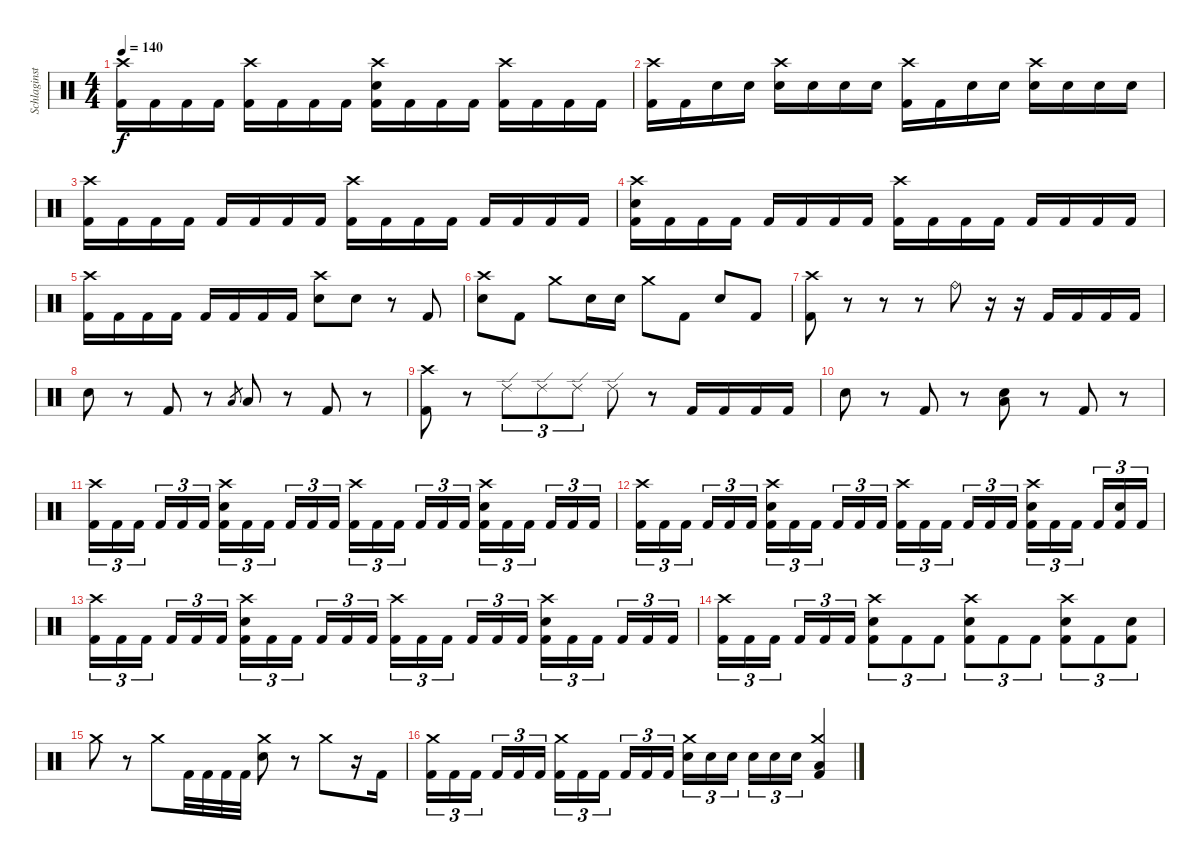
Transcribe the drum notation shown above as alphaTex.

\track ("Schlaginstrumente - Auswahl" "Schlaginst") {instrument percussion}
\staff {score}
\articulation defaults
\ts (4 4)
\tempo 140
\clef neutral
\ks c
("Crash high (hit)" "Kick (hit) 2").16{dy f} "Kick (hit) 2".16 "Kick (hit) 2".16 "Kick (hit) 2".16 ("Crash high (hit)" "Kick (hit) 2").16 "Kick (hit) 2".16 "Kick (hit) 2".16 "Kick (hit) 2".16 ("Electric Snare (hit)" "Crash high (hit)" "Kick (hit) 2").16 "Kick (hit) 2".16 "Kick (hit) 2".16 "Kick (hit) 2".16 ("Crash high (hit)" "Kick (hit) 2").16 "Kick (hit) 2".16 "Kick (hit) 2".16 "Kick (hit) 2".16 |
("Crash high (hit)" "Kick (hit) 2").16 "Kick (hit) 2".16 "Electric Snare (hit)".16 "Electric Snare (hit)".16 ("Crash high (hit)" "Electric Snare (hit)").16 "Electric Snare (hit)".16 "Electric Snare (hit)".16 "Electric Snare (hit)".16 ("Crash high (hit)" "Kick (hit) 2").16 "Kick (hit) 2".16 "Electric Snare (hit)".16 "Electric Snare (hit)".16 ("Crash high (hit)" "Electric Snare (hit)").16 "Electric Snare (hit)".16 "Electric Snare (hit)".16 "Electric Snare (hit)".16 |
("Crash high (hit)" "Kick (hit) 2").16 "Kick (hit) 2".16 "Kick (hit) 2".16 "Kick (hit) 2".16 "Kick (hit) 2".16 "Kick (hit) 2".16 "Kick (hit) 2".16 "Kick (hit) 2".16 ("Crash high (hit)" "Kick (hit) 2").16 "Kick (hit) 2".16 "Kick (hit) 2".16 "Kick (hit) 2".16 "Kick (hit) 2".16 "Kick (hit) 2".16 "Kick (hit) 2".16 "Kick (hit) 2".16 |
("Electric Snare (hit)" "Crash high (hit)" "Kick (hit) 2").16 "Kick (hit) 2".16 "Kick (hit) 2".16 "Kick (hit) 2".16 "Kick (hit) 2".16 "Kick (hit) 2".16 "Kick (hit) 2".16 "Kick (hit) 2".16 ("Crash high (hit)" "Kick (hit) 2").16 "Kick (hit) 2".16 "Kick (hit) 2".16 "Kick (hit) 2".16 "Kick (hit) 2".16 "Kick (hit) 2".16 "Kick (hit) 2".16 "Kick (hit) 2".16 |
("Crash high (hit)" "Kick (hit) 2").16 "Kick (hit) 2".16 "Kick (hit) 2".16 "Kick (hit) 2".16 "Kick (hit) 2".16 "Kick (hit) 2".16 "Kick (hit) 2".16 "Kick (hit) 2".16 ("Crash high (hit)" "Electric Snare (hit)").8 "Electric Snare (hit)".8 r.8 "Kick (hit) 2".8 |
("Electric Snare (hit)" "Crash high (hit)").8 "Kick (hit) 2".8 "Crash medium (hit)".8 "Electric Snare (hit)".16 "Electric Snare (hit)".16 "Crash medium (hit)".8 "Kick (hit) 2".8 "Electric Snare (hit)".8 "Kick (hit) 2".8 |
("Crash high (hit)" "Kick (hit) 2").8 r.8 r.8 r.8 "Ride (bell)".8 r.16 r.16 "Kick (hit) 2".16 "Kick (hit) 2".16 "Kick (hit) 2".16 "Kick (hit) 2".16 |
"Electric Snare (hit)".8 r.8 "Kick (hit) 2".8 r.8 "Low Tom (hit)".8{gr} "Low Tom (hit)".8 r.8 "Kick (hit) 2".8 r.8 |
("Crash high (hit)" "Kick (hit) 2").8 r.8 "Ride (edge) 2".8{tu (3 2)} "Ride (edge) 2".8{tu (3 2)} "Ride (edge) 2".8{tu (3 2)} "Ride (edge) 2".8 r.8 "Kick (hit) 2".16 "Kick (hit) 2".16 "Kick (hit) 2".16 "Kick (hit) 2".16 |
"Electric Snare (hit)".8 r.8 "Kick (hit) 2".8 r.8 ("Low Floor Tom (hit)" "Electric Snare (hit)").8 r.8 "Kick (hit) 2".8 r.8 |
("Crash high (hit)" "Kick (hit) 2").16{tu (3 2)} "Kick (hit) 2".16{tu (3 2)} "Kick (hit) 2".16{tu (3 2) beam splitsecondary} "Kick (hit) 2".16{tu (3 2)} "Kick (hit) 2".16{tu (3 2)} "Kick (hit) 2".16{tu (3 2)} ("Electric Snare (hit)" "Crash high (hit)" "Kick (hit) 2").16{tu (3 2)} "Kick (hit) 2".16{tu (3 2)} "Kick (hit) 2".16{tu (3 2) beam splitsecondary} "Kick (hit) 2".16{tu (3 2)} "Kick (hit) 2".16{tu (3 2)} "Kick (hit) 2".16{tu (3 2)} ("Crash high (hit)" "Kick (hit) 2").16{tu (3 2)} "Kick (hit) 2".16{tu (3 2)} "Kick (hit) 2".16{tu (3 2) beam splitsecondary} "Kick (hit) 2".16{tu (3 2)} "Kick (hit) 2".16{tu (3 2)} "Kick (hit) 2".16{tu (3 2)} ("Electric Snare (hit)" "Crash high (hit)" "Kick (hit) 2").16{tu (3 2)} "Kick (hit) 2".16{tu (3 2)} "Kick (hit) 2".16{tu (3 2) beam splitsecondary} "Kick (hit) 2".16{tu (3 2)} "Kick (hit) 2".16{tu (3 2)} "Kick (hit) 2".16{tu (3 2)} |
("Crash high (hit)" "Kick (hit) 2").16{tu (3 2)} "Kick (hit) 2".16{tu (3 2)} "Kick (hit) 2".16{tu (3 2) beam splitsecondary} "Kick (hit) 2".16{tu (3 2)} "Kick (hit) 2".16{tu (3 2)} "Kick (hit) 2".16{tu (3 2)} ("Electric Snare (hit)" "Crash high (hit)" "Kick (hit) 2").16{tu (3 2)} "Kick (hit) 2".16{tu (3 2)} "Kick (hit) 2".16{tu (3 2) beam splitsecondary} "Kick (hit) 2".16{tu (3 2)} "Kick (hit) 2".16{tu (3 2)} "Kick (hit) 2".16{tu (3 2)} ("Crash high (hit)" "Kick (hit) 2").16{tu (3 2)} "Kick (hit) 2".16{tu (3 2)} "Kick (hit) 2".16{tu (3 2) beam splitsecondary} "Kick (hit) 2".16{tu (3 2)} "Kick (hit) 2".16{tu (3 2)} "Kick (hit) 2".16{tu (3 2)} ("Electric Snare (hit)" "Crash high (hit)" "Kick (hit) 2").16{tu (3 2)} "Kick (hit) 2".16{tu (3 2)} "Kick (hit) 2".16{tu (3 2) beam splitsecondary} "Kick (hit) 2".16{tu (3 2)} ("Electric Snare (hit)" "Kick (hit) 2").16{tu (3 2)} "Kick (hit) 2".16{tu (3 2)} |
("Crash high (hit)" "Kick (hit) 2").16{tu (3 2)} "Kick (hit) 2".16{tu (3 2)} "Kick (hit) 2".16{tu (3 2) beam splitsecondary} "Kick (hit) 2".16{tu (3 2)} "Kick (hit) 2".16{tu (3 2)} "Kick (hit) 2".16{tu (3 2)} ("Electric Snare (hit)" "Crash high (hit)" "Kick (hit) 2").16{tu (3 2)} "Kick (hit) 2".16{tu (3 2)} "Kick (hit) 2".16{tu (3 2) beam splitsecondary} "Kick (hit) 2".16{tu (3 2)} "Kick (hit) 2".16{tu (3 2)} "Kick (hit) 2".16{tu (3 2)} ("Crash high (hit)" "Kick (hit) 2").16{tu (3 2)} "Kick (hit) 2".16{tu (3 2)} "Kick (hit) 2".16{tu (3 2) beam splitsecondary} "Kick (hit) 2".16{tu (3 2)} "Kick (hit) 2".16{tu (3 2)} "Kick (hit) 2".16{tu (3 2)} ("Electric Snare (hit)" "Crash high (hit)" "Kick (hit) 2").16{tu (3 2)} "Kick (hit) 2".16{tu (3 2)} "Kick (hit) 2".16{tu (3 2) beam splitsecondary} "Kick (hit) 2".16{tu (3 2)} "Kick (hit) 2".16{tu (3 2)} "Kick (hit) 2".16{tu (3 2)} |
("Crash high (hit)" "Kick (hit) 2").16{tu (3 2)} "Kick (hit) 2".16{tu (3 2)} "Kick (hit) 2".16{tu (3 2) beam splitsecondary} "Kick (hit) 2".16{tu (3 2)} "Kick (hit) 2".16{tu (3 2)} "Kick (hit) 2".16{tu (3 2)} ("Electric Snare (hit)" "Crash high (hit)" "Kick (hit) 2").8{tu (3 2)} "Kick (hit) 2".8{tu (3 2)} "Kick (hit) 2".8{tu (3 2)} ("Crash high (hit)" "Electric Snare (hit)" "Kick (hit) 2").8{tu (3 2)} "Kick (hit) 2".8{tu (3 2)} "Kick (hit) 2".8{tu (3 2)} ("Crash high (hit)" "Electric Snare (hit)" "Kick (hit) 2").8{tu (3 2)} "Kick (hit) 2".8{tu (3 2)} ("Electric Snare (hit)" "Kick (hit) 2").8{tu (3 2)} |
"Crash medium (hit)".8 r.8 "Crash medium (hit)".8 "Kick (hit) 2".32 "Kick (hit) 2".32 "Kick (hit) 2".32 "Kick (hit) 2".32 ("Crash medium (hit)" "Electric Snare (hit)").8 r.8 "Crash medium (hit)".8 r.16 "Kick (hit) 2".16 |
("Crash medium (hit)" "Kick (hit) 2").16{tu (3 2)} "Kick (hit) 2".16{tu (3 2)} "Kick (hit) 2".16{tu (3 2) beam splitsecondary} "Kick (hit) 2".16{tu (3 2)} "Kick (hit) 2".16{tu (3 2)} "Kick (hit) 2".16{tu (3 2)} ("Crash medium (hit)" "Kick (hit) 2").16{tu (3 2)} "Kick (hit) 2".16{tu (3 2)} "Kick (hit) 2".16{tu (3 2) beam splitsecondary} "Kick (hit) 2".16{tu (3 2)} "Kick (hit) 2".16{tu (3 2)} "Kick (hit) 2".16{tu (3 2)} ("Crash medium (hit)" "Electric Snare (hit)").16{tu (3 2)} "Electric Snare (hit)".16{tu (3 2)} "Electric Snare (hit)".16{tu (3 2) beam splitsecondary} "Electric Snare (hit)".16{tu (3 2)} "Electric Snare (hit)".16{tu (3 2)} "Electric Snare (hit)".16{tu (3 2)} ("Crash medium (hit)" "Kick (hit) 2" "Low Floor Tom (hit)").4
